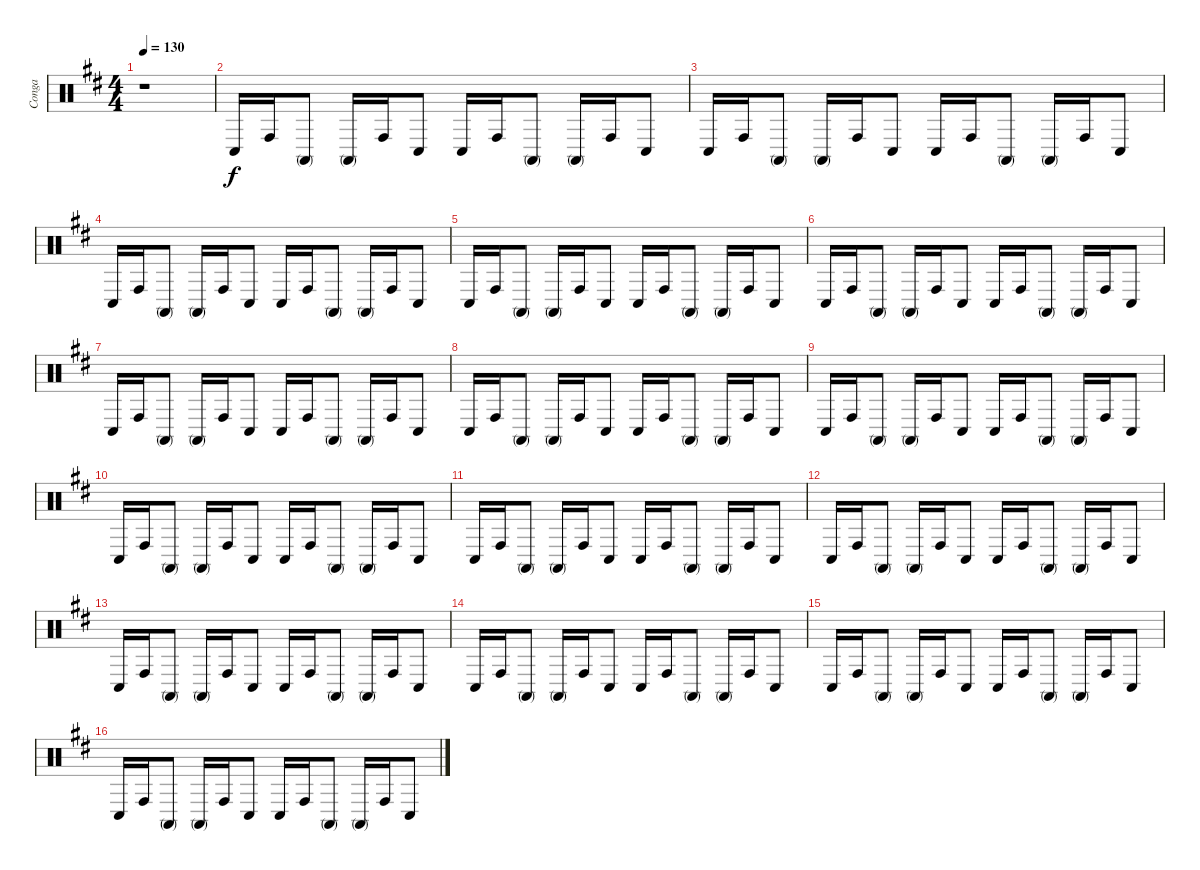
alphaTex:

\track ("Conga" "Conga") {instrument percussion}
\staff {score}
\articulation defaults
\ts (4 4)
\tempo 130
\clef neutral
\ks d
r.1{dy f} |
"Conga low (hit)".16 "Conga high (hit)".16 "Conga high (mute)".8 "Conga high (mute)".16 "Conga high (hit)".16 "Conga low (hit)".8 "Conga low (hit)".16 "Conga high (hit)".16 "Conga high (mute)".8 "Conga high (mute)".16 "Conga high (hit)".16 "Conga low (hit)".8 |
"Conga low (hit)".16 "Conga high (hit)".16 "Conga high (mute)".8 "Conga high (mute)".16 "Conga high (hit)".16 "Conga low (hit)".8 "Conga low (hit)".16 "Conga high (hit)".16 "Conga high (mute)".8 "Conga high (mute)".16 "Conga high (hit)".16 "Conga low (hit)".8 |
"Conga low (hit)".16 "Conga high (hit)".16 "Conga high (mute)".8 "Conga high (mute)".16 "Conga high (hit)".16 "Conga low (hit)".8 "Conga low (hit)".16 "Conga high (hit)".16 "Conga high (mute)".8 "Conga high (mute)".16 "Conga high (hit)".16 "Conga low (hit)".8 |
"Conga low (hit)".16 "Conga high (hit)".16 "Conga high (mute)".8 "Conga high (mute)".16 "Conga high (hit)".16 "Conga low (hit)".8 "Conga low (hit)".16 "Conga high (hit)".16 "Conga high (mute)".8 "Conga high (mute)".16 "Conga high (hit)".16 "Conga low (hit)".8 |
"Conga low (hit)".16 "Conga high (hit)".16 "Conga high (mute)".8 "Conga high (mute)".16 "Conga high (hit)".16 "Conga low (hit)".8 "Conga low (hit)".16 "Conga high (hit)".16 "Conga high (mute)".8 "Conga high (mute)".16 "Conga high (hit)".16 "Conga low (hit)".8 |
"Conga low (hit)".16 "Conga high (hit)".16 "Conga high (mute)".8 "Conga high (mute)".16 "Conga high (hit)".16 "Conga low (hit)".8 "Conga low (hit)".16 "Conga high (hit)".16 "Conga high (mute)".8 "Conga high (mute)".16 "Conga high (hit)".16 "Conga low (hit)".8 |
"Conga low (hit)".16 "Conga high (hit)".16 "Conga high (mute)".8 "Conga high (mute)".16 "Conga high (hit)".16 "Conga low (hit)".8 "Conga low (hit)".16 "Conga high (hit)".16 "Conga high (mute)".8 "Conga high (mute)".16 "Conga high (hit)".16 "Conga low (hit)".8 |
"Conga low (hit)".16 "Conga high (hit)".16 "Conga high (mute)".8 "Conga high (mute)".16 "Conga high (hit)".16 "Conga low (hit)".8 "Conga low (hit)".16 "Conga high (hit)".16 "Conga high (mute)".8 "Conga high (mute)".16 "Conga high (hit)".16 "Conga low (hit)".8 |
"Conga low (hit)".16 "Conga high (hit)".16 "Conga high (mute)".8 "Conga high (mute)".16 "Conga high (hit)".16 "Conga low (hit)".8 "Conga low (hit)".16 "Conga high (hit)".16 "Conga high (mute)".8 "Conga high (mute)".16 "Conga high (hit)".16 "Conga low (hit)".8 |
"Conga low (hit)".16 "Conga high (hit)".16 "Conga high (mute)".8 "Conga high (mute)".16 "Conga high (hit)".16 "Conga low (hit)".8 "Conga low (hit)".16 "Conga high (hit)".16 "Conga high (mute)".8 "Conga high (mute)".16 "Conga high (hit)".16 "Conga low (hit)".8 |
"Conga low (hit)".16 "Conga high (hit)".16 "Conga high (mute)".8 "Conga high (mute)".16 "Conga high (hit)".16 "Conga low (hit)".8 "Conga low (hit)".16 "Conga high (hit)".16 "Conga high (mute)".8 "Conga high (mute)".16 "Conga high (hit)".16 "Conga low (hit)".8 |
"Conga low (hit)".16 "Conga high (hit)".16 "Conga high (mute)".8 "Conga high (mute)".16 "Conga high (hit)".16 "Conga low (hit)".8 "Conga low (hit)".16 "Conga high (hit)".16 "Conga high (mute)".8 "Conga high (mute)".16 "Conga high (hit)".16 "Conga low (hit)".8 |
"Conga low (hit)".16 "Conga high (hit)".16 "Conga high (mute)".8 "Conga high (mute)".16 "Conga high (hit)".16 "Conga low (hit)".8 "Conga low (hit)".16 "Conga high (hit)".16 "Conga high (mute)".8 "Conga high (mute)".16 "Conga high (hit)".16 "Conga low (hit)".8 |
"Conga low (hit)".16 "Conga high (hit)".16 "Conga high (mute)".8 "Conga high (mute)".16 "Conga high (hit)".16 "Conga low (hit)".8 "Conga low (hit)".16 "Conga high (hit)".16 "Conga high (mute)".8 "Conga high (mute)".16 "Conga high (hit)".16 "Conga low (hit)".8 |
"Conga low (hit)".16 "Conga high (hit)".16 "Conga high (mute)".8 "Conga high (mute)".16 "Conga high (hit)".16 "Conga low (hit)".8 "Conga low (hit)".16 "Conga high (hit)".16 "Conga high (mute)".8 "Conga high (mute)".16 "Conga high (hit)".16 "Conga low (hit)".8
